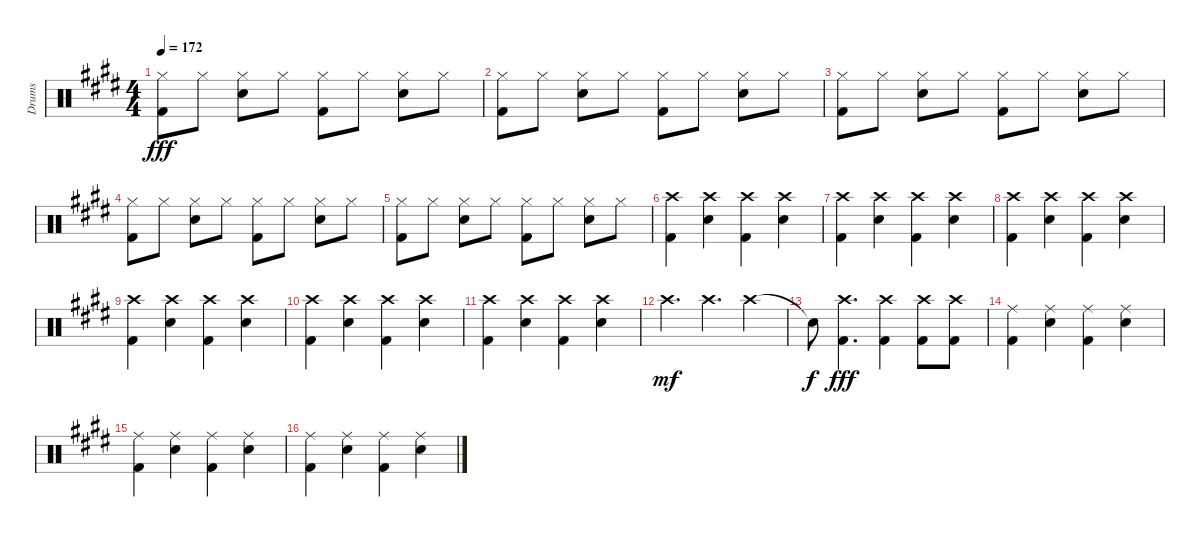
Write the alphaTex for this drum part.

\track ("Drums" "Drums") {instrument percussion}
\staff {score}
\articulation defaults
\ts (4 4)
\tempo 172
\clef neutral
\ks e
("Hi-Hat (closed)" "Kick (hit) 2").8{dy fff} "Hi-Hat (closed)".8 ("Hi-Hat (closed)" "Electric Snare (hit)").8 "Hi-Hat (closed)".8 ("Hi-Hat (closed)" "Kick (hit) 2").8 "Hi-Hat (closed)".8 ("Hi-Hat (closed)" "Electric Snare (hit)").8 "Hi-Hat (closed)".8 |
("Hi-Hat (closed)" "Kick (hit) 2").8 "Hi-Hat (closed)".8 ("Hi-Hat (closed)" "Electric Snare (hit)").8 "Hi-Hat (closed)".8 ("Hi-Hat (closed)" "Kick (hit) 2").8 "Hi-Hat (closed)".8 ("Hi-Hat (closed)" "Electric Snare (hit)").8 "Hi-Hat (closed)".8 |
("Hi-Hat (closed)" "Kick (hit) 2").8 "Hi-Hat (closed)".8 ("Hi-Hat (closed)" "Electric Snare (hit)").8 "Hi-Hat (closed)".8 ("Hi-Hat (closed)" "Kick (hit) 2").8 "Hi-Hat (closed)".8 ("Hi-Hat (closed)" "Electric Snare (hit)").8 "Hi-Hat (closed)".8 |
("Hi-Hat (closed)" "Kick (hit) 2").8 "Hi-Hat (closed)".8 ("Hi-Hat (closed)" "Electric Snare (hit)").8 "Hi-Hat (closed)".8 ("Hi-Hat (closed)" "Kick (hit) 2").8 "Hi-Hat (closed)".8 ("Hi-Hat (closed)" "Electric Snare (hit)").8 "Hi-Hat (closed)".8 |
("Hi-Hat (closed)" "Kick (hit) 2").8 "Hi-Hat (closed)".8 ("Hi-Hat (closed)" "Electric Snare (hit)").8 "Hi-Hat (closed)".8 ("Hi-Hat (closed)" "Kick (hit) 2").8 "Hi-Hat (closed)".8 ("Hi-Hat (closed)" "Electric Snare (hit)").8 "Hi-Hat (closed)".8 |
("Crash high (hit)" "Kick (hit) 2").4 ("Crash high (hit)" "Electric Snare (hit)").4 ("Crash high (hit)" "Kick (hit) 2").4 ("Crash high (hit)" "Electric Snare (hit)").4 |
("Crash high (hit)" "Kick (hit) 2").4 ("Crash high (hit)" "Electric Snare (hit)").4 ("Crash high (hit)" "Kick (hit) 2").4 ("Crash high (hit)" "Electric Snare (hit)").4 |
("Crash high (hit)" "Kick (hit) 2").4 ("Crash high (hit)" "Electric Snare (hit)").4 ("Crash high (hit)" "Kick (hit) 2").4 ("Crash high (hit)" "Electric Snare (hit)").4 |
("Crash high (hit)" "Kick (hit) 2").4 ("Crash high (hit)" "Electric Snare (hit)").4 ("Crash high (hit)" "Kick (hit) 2").4 ("Crash high (hit)" "Electric Snare (hit)").4 |
("Crash high (hit)" "Kick (hit) 2").4 ("Crash high (hit)" "Electric Snare (hit)").4 ("Crash high (hit)" "Kick (hit) 2").4 ("Crash high (hit)" "Electric Snare (hit)").4 |
("Crash high (hit)" "Kick (hit) 2").4 ("Crash high (hit)" "Electric Snare (hit)").4 ("Crash high (hit)" "Kick (hit) 2").4 ("Crash high (hit)" "Electric Snare (hit)").4 |
"Crash high (hit)".4{d dy mf} "Crash high (hit)".4{d} "Crash high (hit)".4 |
"Snare (hit)"{t}.8{dy f} ("Crash high (hit)" "Kick (hit) 2").4{d dy fff} ("Crash high (hit)" "Kick (hit) 2").4 ("Crash high (hit)" "Kick (hit) 2").8 ("Crash high (hit)" "Kick (hit) 2").8 |
("Ride (middle)" "Kick (hit) 2").4 ("Ride (middle)" "Electric Snare (hit)").4 ("Ride (middle)" "Kick (hit) 2").4 ("Ride (middle)" "Electric Snare (hit)").4 |
("Ride (middle)" "Kick (hit) 2").4 ("Ride (middle)" "Electric Snare (hit)").4 ("Ride (middle)" "Kick (hit) 2").4 ("Ride (middle)" "Electric Snare (hit)").4 |
("Ride (middle)" "Kick (hit) 2").4 ("Ride (middle)" "Electric Snare (hit)").4 ("Ride (middle)" "Kick (hit) 2").4 ("Ride (middle)" "Electric Snare (hit)").4
